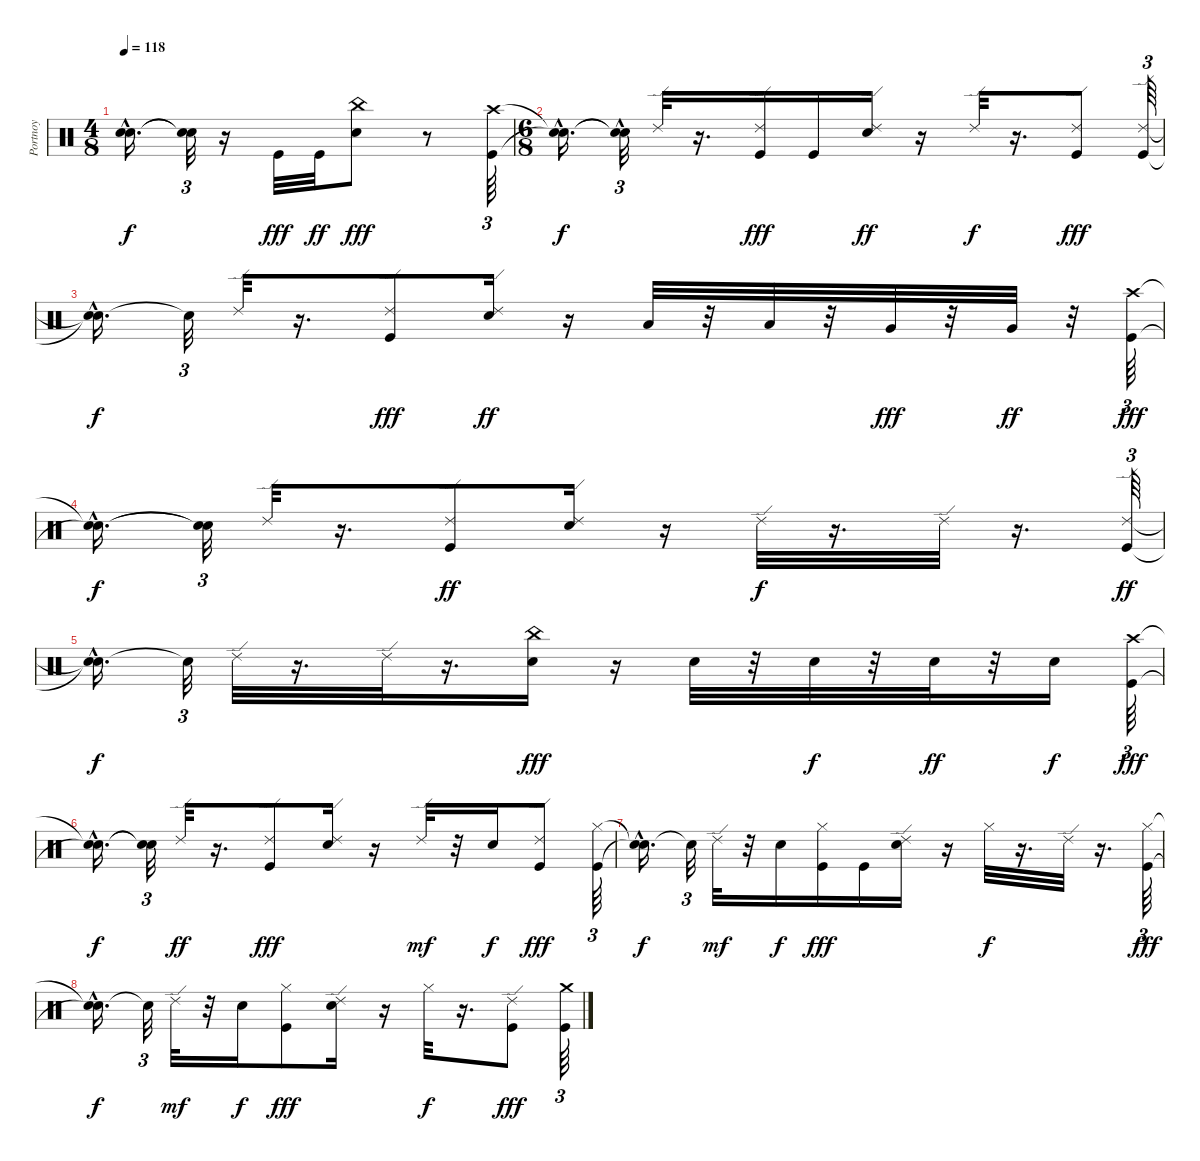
\track ("Portnoy" "Portnoy") {instrument percussion}
\staff {score}
\articulation defaults
\ts (4 8)
\tempo 118
\clef neutral
\ks c
("Snare (hit)"{hac t} "Snare (hit)"{hac t}).16{d dy f} ("Snare (hit)"{t} "Snare (hit)"{t}).32{tu (3 2)} r.16 "Kick (hit)".32{dy fff} "Kick (hit)".32{dy ff} ("China (hit)" "Snare (hit) 2").8{dy fff} r.8 ("Kick (hit)" "Crash high (hit)").64{tu (3 2)} |
\ts (6 8)
("Snare (hit)"{hac t} "Snare (hit)"{hac t}).16{d dy f} ("Snare (hit)"{t} "Snare (hit)"{hac t}).32{tu (3 2)} "Ride (edge) 2".32 r.16{d} ("Kick (hit)" "Ride (edge) 2").16{dy fff} "Kick (hit)".16 ("Snare (hit) 2" "Ride (edge) 2").16{dy ff} r.16 "Ride (edge) 2".32{dy f} r.16{d} ("Kick (hit)" "Ride (edge) 2").8{dy fff} ("Kick (hit)" "Ride (edge) 2").64{tu (3 2)} |
("Snare (hit)"{hac t} "Snare (hit)"{t}).16{d dy f} "Snare (hit)"{t}.32{tu (3 2)} "Ride (edge) 2".32 r.16{d} ("Kick (hit)" "Ride (edge) 2").8{dy fff} ("Snare (hit) 2" "Ride (edge) 2").16{dy ff} r.16 "Low Tom (hit)".32 r.32 "Low Tom (hit)".32 r.32 "Very Low Tom (hit)".32{dy fff} r.32 "Very Low Tom (hit)".32{dy ff} r.32 ("Crash high (hit)" "Kick (hit)").64{tu (3 2) dy fff} |
("Snare (hit)"{hac t} "Snare (hit)"{hac t}).16{d dy f} ("Snare (hit)"{t} "Snare (hit)"{t}).32{tu (3 2)} "Ride (edge) 2".32 r.16{d} ("Kick (hit)" "Ride (edge) 2").8{dy ff} ("Snare (hit) 2" "Ride (edge) 2").16 r.16 "Ride (edge) 2".32{dy f} r.16{d} "Ride (edge) 2".32 r.16{d} ("Kick (hit)" "Ride (edge) 2").64{tu (3 2) dy ff} |
("Snare (hit)"{hac t} "Snare (hit)"{t}).16{d dy f} "Snare (hit)"{t}.32{tu (3 2)} "Ride (edge) 2".32 r.16{d} "Ride (edge) 2".32 r.16{d} ("Snare (hit) 2" "China (hit)").16{dy fff} r.16 "Snare (hit) 2".32 r.32 "Snare (hit) 2".32{dy f} r.32 "Snare (hit) 2".32{dy ff} r.32 "Snare (hit) 2".16{dy f} ("Kick (hit)" "Crash high (hit)").64{tu (3 2) dy fff} |
("Snare (hit)"{hac t} "Snare (hit)"{hac t}).16{d dy f} ("Snare (hit)"{t} "Snare (hit)"{t}).32{tu (3 2)} "Ride (edge) 2".32{dy ff} r.16{d} ("Ride (edge) 2" "Kick (hit)").8{dy fff} ("Snare (hit) 2" "Ride (edge) 2").16 r.16 "Ride (edge) 2".32{dy mf} r.32 "Snare (hit) 2".16{dy f} ("Ride (edge) 2" "Kick (hit)").8{dy fff} ("Kick (hit)" "Hi-Hat (closed)").64{tu (3 2)} |
("Snare (hit)"{hac t} "Snare (hit)"{t}).16{d dy f} "Snare (hit)"{t}.32{tu (3 2)} "Ride (edge) 2".32{dy mf} r.32 "Snare (hit) 2".16{dy f} ("Hi-Hat (closed)" "Kick (hit)").16{dy fff} "Kick (hit)".16 ("Snare (hit) 2" "Ride (edge) 2").16 r.16 "Hi-Hat (closed)".32{dy f} r.16{d} "Ride (edge) 2".32 r.16{d} ("Hi-Hat (closed)" "Kick (hit)").64{tu (3 2) dy fff} |
("Snare (hit)"{t} "Snare (hit)"{hac t}).16{d dy f} "Snare (hit)"{t}.32{tu (3 2)} "Ride (edge) 2".32{dy mf} r.32 "Snare (hit) 2".16{dy f} ("Hi-Hat (closed)" "Kick (hit)").8{dy fff} ("Snare (hit) 2" "Ride (edge) 2").16 r.16 "Hi-Hat (closed)".32{dy f} r.16{d} ("Kick (hit)" "Ride (edge) 2").8{dy fff} ("Crash medium (hit)" "Kick (hit)").64{tu (3 2)}
